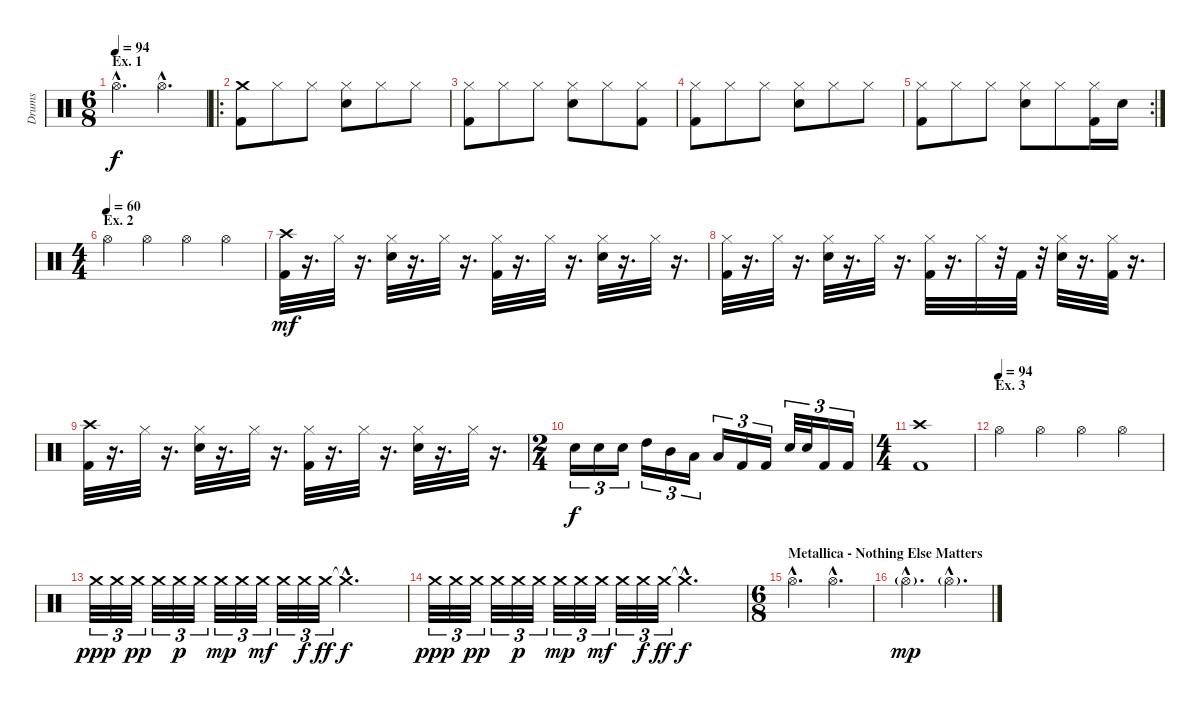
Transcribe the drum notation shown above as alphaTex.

\track ("Drums" "Drums") {instrument percussion}
\staff {score}
\articulation defaults
\ts (6 8)
\section ("" "Ex. 1")
\tempo 94
\clef neutral
\ks c "Hi-Hat (open)"{hac}.4{d dy f} "Hi-Hat (open)"{hac}.4{d}
|
\ro
("Crash medium (hit)" "Kick (hit) 2").8 "Hi-Hat (closed)".8 "Hi-Hat (closed)".8 ("Hi-Hat (closed)" "Snare (hit) 2").8 "Hi-Hat (closed)".8 "Hi-Hat (closed)".8 |
("Hi-Hat (closed)" "Kick (hit) 2").8 "Hi-Hat (closed)".8 "Hi-Hat (closed)".8 ("Hi-Hat (closed)" "Snare (hit) 2").8 "Hi-Hat (closed)".8 ("Hi-Hat (closed)" "Kick (hit) 2").8 |
("Hi-Hat (closed)" "Kick (hit) 2").8 "Hi-Hat (closed)".8 "Hi-Hat (closed)".8 ("Hi-Hat (closed)" "Snare (hit) 2").8 "Hi-Hat (closed)".8 "Hi-Hat (closed)".8 |
\rc 2
("Hi-Hat (closed)" "Kick (hit) 2").8 "Hi-Hat (closed)".8 "Hi-Hat (closed)".8 ("Hi-Hat (closed)" "Snare (hit) 2").8 "Hi-Hat (closed)".8 ("Hi-Hat (closed)" "Kick (hit) 2").16 "Snare (hit) 2".16 |
\ts (4 4)
\section ("" "Ex. 2")
\tempo (60)
"Hi-Hat (open)".4 "Hi-Hat (open)".4 "Hi-Hat (open)".4 "Hi-Hat (open)".4 |
("Crash high (hit)" "Kick (hit) 2").32{dy mf} r.16{d} "Hi-Hat (closed)".32 r.16{d} ("Snare (hit) 2" "Hi-Hat (closed)").32 r.16{d} "Hi-Hat (closed)".32 r.16{d} ("Hi-Hat (closed)" "Kick (hit) 2").32 r.16{d} "Hi-Hat (closed)".32 r.16{d} ("Hi-Hat (closed)" "Snare (hit) 2").32 r.16{d} "Hi-Hat (closed)".32 r.16{d} |
("Kick (hit) 2" "Hi-Hat (closed)").32 r.16{d} "Hi-Hat (closed)".32 r.16{d} ("Hi-Hat (closed)" "Snare (hit) 2").32 r.16{d} "Hi-Hat (closed)".32 r.16{d} ("Kick (hit) 2" "Hi-Hat (closed)").32 r.16{d} "Hi-Hat (closed)".32 r.32 "Kick (hit) 2".32 r.32 ("Hi-Hat (closed)" "Snare (hit) 2").32 r.16{d} ("Kick (hit) 2" "Hi-Hat (closed)").32 r.16{d} |
("Crash high (hit)" "Kick (hit) 2").32 r.16{d} "Hi-Hat (closed)".32 r.16{d} ("Snare (hit) 2" "Hi-Hat (closed)").32 r.16{d} "Hi-Hat (closed)".32 r.16{d} ("Hi-Hat (closed)" "Kick (hit) 2").32 r.16{d} "Hi-Hat (closed)".32 r.16{d} ("Hi-Hat (closed)" "Snare (hit) 2").32 r.16{d} "Hi-Hat (closed)".32 r.16{d} |
\ts (2 4)
"Snare (hit) 2".16{tu (3 2) dy f} "Snare (hit) 2".16{tu (3 2)} "Snare (hit) 2".16{tu (3 2)} "High Tom (hit)".16{tu (3 2)} "Mid Tom (hit)".16{tu (3 2)} "Low Tom (hit)".16{tu (3 2)} "Low Tom (hit)".16{tu (3 2)} "Kick (hit) 2".16{tu (3 2)} "Kick (hit) 2".16{tu (3 2)} "Snare (hit) 2".32{tu (3 2)} "Snare (hit) 2".32{tu (3 2)} "Kick (hit) 2".16{tu (3 2)} "Kick (hit) 2".16{tu (3 2)} |
\ts (4 4)
("Crash high (hit)" "Kick (hit) 2").1 |
\section ("" "Ex. 3")
\tempo (94)
"Hi-Hat (open)".4 "Hi-Hat (open)".4 "Hi-Hat (open)".4 "Hi-Hat (open)".4 |
"Crash medium (hit)".32{tu (3 2) dy ppp} "Crash medium (hit)".32{tu (3 2)} "Crash medium (hit)".32{tu (3 2) dy pp} "Crash medium (hit)".32{tu (3 2)} "Crash medium (hit)".32{tu (3 2) dy p} "Crash medium (hit)".32{tu (3 2)} "Crash medium (hit)".32{tu (3 2) dy mp} "Crash medium (hit)".32{tu (3 2)} "Crash medium (hit)".32{tu (3 2) dy mf} "Crash medium (hit)".32{tu (3 2)} "Crash medium (hit)".32{tu (3 2) dy f} "Crash medium (hit)".32{tu (3 2) dy ff} "Crash medium (hit)"{hac t}.2{d dy f} |
"Crash medium (hit)".32{tu (3 2) dy ppp} "Crash medium (hit)".32{tu (3 2)} "Crash medium (hit)".32{tu (3 2) dy pp} "Crash medium (hit)".32{tu (3 2)} "Crash medium (hit)".32{tu (3 2) dy p} "Crash medium (hit)".32{tu (3 2)} "Crash medium (hit)".32{tu (3 2) dy mp} "Crash medium (hit)".32{tu (3 2)} "Crash medium (hit)".32{tu (3 2) dy mf} "Crash medium (hit)".32{tu (3 2)} "Crash medium (hit)".32{tu (3 2) dy f} "Crash medium (hit)".32{tu (3 2) dy ff} "Crash medium (hit)"{hac t}.2{d dy f} |
\ts (6 8)
\section ("" "Metallica - Nothing Else Matters")
"Hi-Hat (open)"{hac}.4{d} "Hi-Hat (open)"{hac}.4{d} |
"Hi-Hat (open)"{g hac}.4{d dy mp} "Hi-Hat (open)"{g hac}.4{d}
